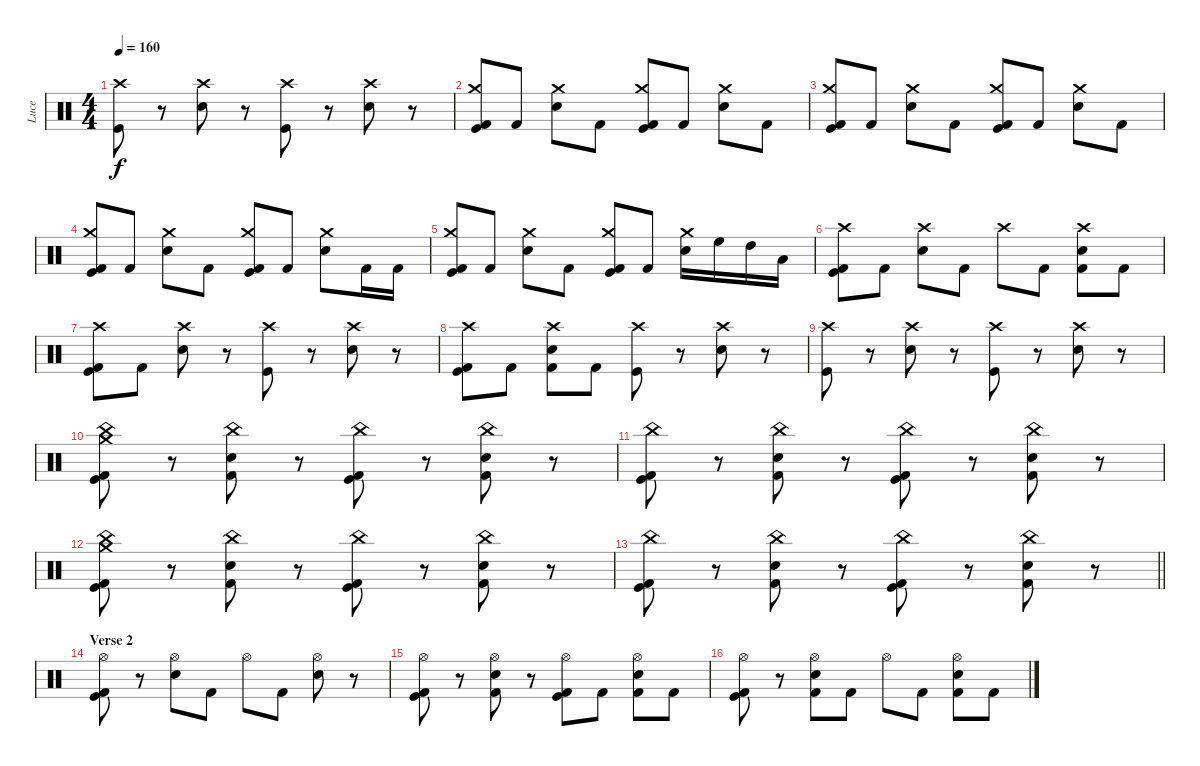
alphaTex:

\track ("Luce" "Luce") {instrument percussion}
\staff {score}
\articulation defaults
\ts (4 4)
\tempo 160
\clef neutral
\ks c
("Crash high (hit)" "Kick (hit)").8{dy f} r.8 ("Crash high (hit)" "Snare (hit) 2").8 r.8 ("Crash high (hit)" "Kick (hit)").8 r.8 ("Crash high (hit)" "Snare (hit) 2").8 r.8 |
("Crash medium (hit)" "Kick (hit) 2" "Kick (hit)").8 "Kick (hit) 2".8 ("Crash medium (hit)" "Snare (hit) 2").8 "Kick (hit) 2".8 ("Crash medium (hit)" "Kick (hit) 2" "Kick (hit)").8 "Kick (hit) 2".8 ("Crash medium (hit)" "Snare (hit) 2").8 "Kick (hit) 2".8 |
("Crash medium (hit)" "Kick (hit) 2" "Kick (hit)").8 "Kick (hit) 2".8 ("Crash medium (hit)" "Snare (hit) 2").8 "Kick (hit) 2".8 ("Crash medium (hit)" "Kick (hit) 2" "Kick (hit)").8 "Kick (hit) 2".8 ("Crash medium (hit)" "Snare (hit) 2").8 "Kick (hit) 2".8 |
("Crash medium (hit)" "Kick (hit) 2" "Kick (hit)").8 "Kick (hit) 2".8 ("Crash medium (hit)" "Snare (hit) 2").8 "Kick (hit) 2".8 ("Crash medium (hit)" "Kick (hit) 2" "Kick (hit)").8 "Kick (hit) 2".8 ("Crash medium (hit)" "Snare (hit) 2").8 "Kick (hit) 2".16 "Kick (hit) 2".16 |
("Crash medium (hit)" "Kick (hit) 2" "Kick (hit)").8 "Kick (hit) 2".8 ("Crash medium (hit)" "Snare (hit) 2").8 "Kick (hit) 2".8 ("Crash medium (hit)" "Kick (hit) 2" "Kick (hit)").8 "Kick (hit) 2".8 ("Crash medium (hit)" "Snare (hit) 2").16 "High Floor Tom (hit)".16 "High Tom (hit)".16 "Low Tom (hit)".16 |
("Crash high (hit)" "Kick (hit) 2" "Kick (hit)").8 "Kick (hit) 2".8 ("Crash high (hit)" "Snare (hit) 2").8 "Kick (hit) 2".8 "Crash high (hit)".8 "Kick (hit) 2".8 ("Crash high (hit)" "Kick (hit) 2" "Snare (hit) 2").8 "Kick (hit) 2".8 |
("Crash high (hit)" "Kick (hit) 2" "Kick (hit)").8 "Kick (hit) 2".8 ("Crash high (hit)" "Snare (hit) 2").8 r.8 ("Crash high (hit)" "Kick (hit)").8 r.8 ("Crash high (hit)" "Snare (hit) 2").8 r.8 |
("Crash high (hit)" "Kick (hit) 2" "Kick (hit)").8 "Kick (hit) 2".8 ("Crash high (hit)" "Kick (hit) 2" "Snare (hit) 2").8 "Kick (hit) 2".8 ("Crash high (hit)" "Kick (hit)").8 r.8 ("Crash high (hit)" "Snare (hit) 2").8 r.8 |
("Crash high (hit)" "Kick (hit)").8 r.8 ("Crash high (hit)" "Snare (hit) 2").8 r.8 ("Crash high (hit)" "Kick (hit)").8 r.8 ("Crash high (hit)" "Snare (hit) 2").8 r.8 |
("China (hit)" "Crash medium (hit)" "Kick (hit) 2" "Kick (hit)").8 r.8 ("China (hit)" "Kick (hit) 2" "Snare (hit) 2").8 r.8 ("China (hit)" "Kick (hit) 2" "Kick (hit)").8 r.8 ("China (hit)" "Kick (hit) 2" "Snare (hit) 2").8 r.8 |
("China (hit)" "Kick (hit) 2" "Kick (hit)").8 r.8 ("China (hit)" "Kick (hit) 2" "Snare (hit) 2").8 r.8 ("China (hit)" "Kick (hit) 2" "Kick (hit)").8 r.8 ("China (hit)" "Kick (hit) 2" "Snare (hit) 2").8 r.8 |
("China (hit)" "Crash medium (hit)" "Kick (hit) 2" "Kick (hit)").8 r.8 ("China (hit)" "Kick (hit) 2" "Snare (hit) 2").8 r.8 ("China (hit)" "Kick (hit) 2" "Kick (hit)").8 r.8 ("China (hit)" "Kick (hit) 2" "Snare (hit) 2").8 r.8 |
\barLineRight lightlight
("China (hit)" "Kick (hit) 2" "Kick (hit)").8 r.8 ("China (hit)" "Kick (hit) 2" "Snare (hit) 2").8 r.8 ("China (hit)" "Kick (hit) 2" "Kick (hit)").8 r.8 ("China (hit)" "Kick (hit) 2" "Snare (hit) 2").8 r.8 |
\section ("" "Verse 2")
("Hi-Hat (open)" "Kick (hit) 2" "Kick (hit)").8 r.8 ("Hi-Hat (open)" "Snare (hit) 2").8 "Kick (hit) 2".8 "Hi-Hat (open)".8 "Kick (hit) 2".8 ("Hi-Hat (open)" "Snare (hit) 2").8 r.8 |
("Hi-Hat (open)" "Kick (hit) 2" "Kick (hit)").8 r.8 ("Hi-Hat (open)" "Kick (hit) 2" "Snare (hit) 2").8 r.8 ("Hi-Hat (open)" "Kick (hit) 2" "Kick (hit)").8 "Kick (hit) 2".8 ("Hi-Hat (open)" "Kick (hit) 2" "Snare (hit) 2").8 "Kick (hit) 2".8 |
("Hi-Hat (open)" "Kick (hit) 2" "Kick (hit)").8 r.8 ("Hi-Hat (open)" "Kick (hit) 2" "Snare (hit) 2").8 "Kick (hit) 2".8 "Hi-Hat (open)".8 "Kick (hit) 2".8 ("Hi-Hat (open)" "Kick (hit) 2" "Snare (hit) 2").8 "Kick (hit) 2".8
